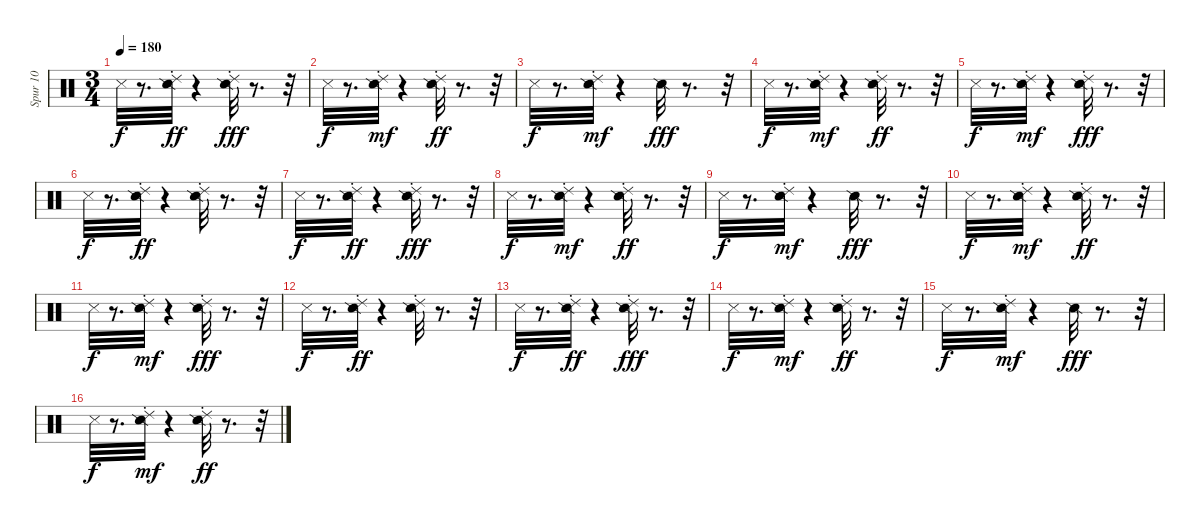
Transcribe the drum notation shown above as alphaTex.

\track ("Spur 10" "Spur 10") {instrument percussion}
\staff {score}
\articulation defaults
\ts (3 4)
\tempo 180
\clef neutral
\ks c "Metronome (hit)".32{dy f}
r.8{d} ("Ride (choke) 2" "Snare (side stick) 2").32{dy ff} r.4 ("Ride (choke) 2" "Snare (side stick) 2").32{dy fff} r.8{d} r.32 |
"Metronome (hit)".32{dy f} r.8{d} ("Ride (choke) 2" "Snare (side stick) 2").32{dy mf} r.4 ("Ride (choke) 2" "Snare (side stick) 2").32{dy ff} r.8{d} r.32 |
"Metronome (hit)".32{dy f} r.8{d} ("Ride (choke) 2" "Snare (side stick) 2").32{dy mf} r.4 "Snare (side stick) 2".32{dy fff} r.8{d} r.32 |
"Metronome (hit)".32{dy f} r.8{d} ("Ride (choke) 2" "Snare (side stick) 2").32{dy mf} r.4 ("Ride (choke) 2" "Snare (side stick) 2").32{dy ff} r.8{d} r.32 |
"Metronome (hit)".32{dy f} r.8{d} ("Ride (choke) 2" "Snare (side stick) 2").32{dy mf} r.4 ("Ride (choke) 2" "Snare (side stick) 2").32{dy fff} r.8{d} r.32 |
"Metronome (hit)".32{dy f} r.8{d} ("Ride (choke) 2" "Snare (side stick) 2").32{dy ff} r.4 ("Ride (choke) 2" "Snare (side stick) 2").32 r.8{d} r.32 |
"Metronome (hit)".32{dy f} r.8{d} ("Ride (choke) 2" "Snare (side stick) 2").32{dy ff} r.4 ("Ride (choke) 2" "Snare (side stick) 2").32{dy fff} r.8{d} r.32 |
"Metronome (hit)".32{dy f} r.8{d} ("Ride (choke) 2" "Snare (side stick) 2").32{dy mf} r.4 ("Ride (choke) 2" "Snare (side stick) 2").32{dy ff} r.8{d} r.32 |
"Metronome (hit)".32{dy f} r.8{d} ("Ride (choke) 2" "Snare (side stick) 2").32{dy mf} r.4 "Snare (side stick) 2".32{dy fff} r.8{d} r.32 |
"Metronome (hit)".32{dy f} r.8{d} ("Ride (choke) 2" "Snare (side stick) 2").32{dy mf} r.4 ("Ride (choke) 2" "Snare (side stick) 2").32{dy ff} r.8{d} r.32 |
"Metronome (hit)".32{dy f} r.8{d} ("Ride (choke) 2" "Snare (side stick) 2").32{dy mf} r.4 ("Ride (choke) 2" "Snare (side stick) 2").32{dy fff} r.8{d} r.32 |
"Metronome (hit)".32{dy f} r.8{d} ("Ride (choke) 2" "Snare (side stick) 2").32{dy ff} r.4 ("Ride (choke) 2" "Snare (side stick) 2").32 r.8{d} r.32 |
"Metronome (hit)".32{dy f} r.8{d} ("Ride (choke) 2" "Snare (side stick) 2").32{dy ff} r.4 ("Ride (choke) 2" "Snare (side stick) 2").32{dy fff} r.8{d} r.32 |
"Metronome (hit)".32{dy f} r.8{d} ("Ride (choke) 2" "Snare (side stick) 2").32{dy mf} r.4 ("Ride (choke) 2" "Snare (side stick) 2").32{dy ff} r.8{d} r.32 |
"Metronome (hit)".32{dy f} r.8{d} ("Ride (choke) 2" "Snare (side stick) 2").32{dy mf} r.4 "Snare (side stick) 2".32{dy fff} r.8{d} r.32 |
"Metronome (hit)".32{dy f} r.8{d} ("Ride (choke) 2" "Snare (side stick) 2").32{dy mf} r.4 ("Ride (choke) 2" "Snare (side stick) 2").32{dy ff} r.8{d} r.32
